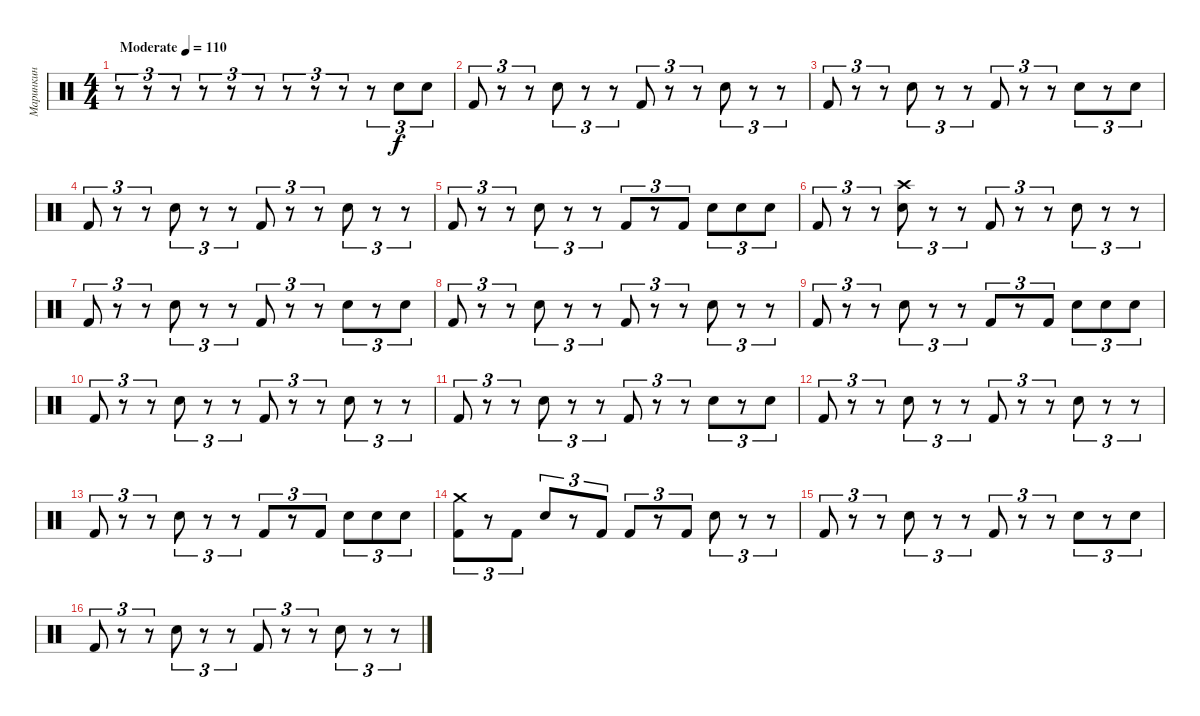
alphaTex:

\track ("Маринкин " "Маринкин ") {instrument percussion}
\staff {score}
\articulation defaults
\ts (4 4)
\tempo (110 "Moderate")
\clef neutral
\ks c
r.8{tu (3 2) dy f} r.8{tu (3 2)} r.8{tu (3 2)} r.8{tu (3 2)} r.8{tu (3 2)} r.8{tu (3 2)} r.8{tu (3 2)} r.8{tu (3 2)} r.8{tu (3 2)} r.8{tu (3 2)} "Snare (hit) 2".8{tu (3 2)} "Snare (hit) 2".8{tu (3 2)} |
"Kick (hit) 2".8{tu (3 2)} r.8{tu (3 2)} r.8{tu (3 2)} "Snare (hit) 2".8{tu (3 2)} r.8{tu (3 2)} r.8{tu (3 2)} "Kick (hit) 2".8{tu (3 2)} r.8{tu (3 2)} r.8{tu (3 2)} "Snare (hit) 2".8{tu (3 2)} r.8{tu (3 2)} r.8{tu (3 2)} |
"Kick (hit) 2".8{tu (3 2)} r.8{tu (3 2)} r.8{tu (3 2)} "Snare (hit) 2".8{tu (3 2)} r.8{tu (3 2)} r.8{tu (3 2)} "Kick (hit) 2".8{tu (3 2)} r.8{tu (3 2)} r.8{tu (3 2)} "Snare (hit) 2".8{tu (3 2)} r.8{tu (3 2)} "Snare (hit) 2".8{tu (3 2)} |
"Kick (hit) 2".8{tu (3 2)} r.8{tu (3 2)} r.8{tu (3 2)} "Snare (hit) 2".8{tu (3 2)} r.8{tu (3 2)} r.8{tu (3 2)} "Kick (hit) 2".8{tu (3 2)} r.8{tu (3 2)} r.8{tu (3 2)} "Snare (hit) 2".8{tu (3 2)} r.8{tu (3 2)} r.8{tu (3 2)} |
"Kick (hit) 2".8{tu (3 2)} r.8{tu (3 2)} r.8{tu (3 2)} "Snare (hit) 2".8{tu (3 2)} r.8{tu (3 2)} r.8{tu (3 2)} "Kick (hit) 2".8{tu (3 2)} r.8{tu (3 2)} "Kick (hit) 2".8{tu (3 2)} "Snare (hit) 2".8{tu (3 2)} "Snare (hit) 2".8{tu (3 2)} "Snare (hit) 2".8{tu (3 2)} |
"Kick (hit) 2".8{tu (3 2)} r.8{tu (3 2)} r.8{tu (3 2)} ("Snare (hit) 2" "Crash high (hit)").8{tu (3 2)} r.8{tu (3 2)} r.8{tu (3 2)} "Kick (hit) 2".8{tu (3 2)} r.8{tu (3 2)} r.8{tu (3 2)} "Snare (hit) 2".8{tu (3 2)} r.8{tu (3 2)} r.8{tu (3 2)} |
"Kick (hit) 2".8{tu (3 2)} r.8{tu (3 2)} r.8{tu (3 2)} "Snare (hit) 2".8{tu (3 2)} r.8{tu (3 2)} r.8{tu (3 2)} "Kick (hit) 2".8{tu (3 2)} r.8{tu (3 2)} r.8{tu (3 2)} "Snare (hit) 2".8{tu (3 2)} r.8{tu (3 2)} "Snare (hit) 2".8{tu (3 2)} |
"Kick (hit) 2".8{tu (3 2)} r.8{tu (3 2)} r.8{tu (3 2)} "Snare (hit) 2".8{tu (3 2)} r.8{tu (3 2)} r.8{tu (3 2)} "Kick (hit) 2".8{tu (3 2)} r.8{tu (3 2)} r.8{tu (3 2)} "Snare (hit) 2".8{tu (3 2)} r.8{tu (3 2)} r.8{tu (3 2)} |
"Kick (hit) 2".8{tu (3 2)} r.8{tu (3 2)} r.8{tu (3 2)} "Snare (hit) 2".8{tu (3 2)} r.8{tu (3 2)} r.8{tu (3 2)} "Kick (hit) 2".8{tu (3 2)} r.8{tu (3 2)} "Kick (hit) 2".8{tu (3 2)} "Snare (hit) 2".8{tu (3 2)} "Snare (hit) 2".8{tu (3 2)} "Snare (hit) 2".8{tu (3 2)} |
"Kick (hit) 2".8{tu (3 2)} r.8{tu (3 2)} r.8{tu (3 2)} "Snare (hit) 2".8{tu (3 2)} r.8{tu (3 2)} r.8{tu (3 2)} "Kick (hit) 2".8{tu (3 2)} r.8{tu (3 2)} r.8{tu (3 2)} "Snare (hit) 2".8{tu (3 2)} r.8{tu (3 2)} r.8{tu (3 2)} |
"Kick (hit) 2".8{tu (3 2)} r.8{tu (3 2)} r.8{tu (3 2)} "Snare (hit) 2".8{tu (3 2)} r.8{tu (3 2)} r.8{tu (3 2)} "Kick (hit) 2".8{tu (3 2)} r.8{tu (3 2)} r.8{tu (3 2)} "Snare (hit) 2".8{tu (3 2)} r.8{tu (3 2)} "Snare (hit) 2".8{tu (3 2)} |
"Kick (hit) 2".8{tu (3 2)} r.8{tu (3 2)} r.8{tu (3 2)} "Snare (hit) 2".8{tu (3 2)} r.8{tu (3 2)} r.8{tu (3 2)} "Kick (hit) 2".8{tu (3 2)} r.8{tu (3 2)} r.8{tu (3 2)} "Snare (hit) 2".8{tu (3 2)} r.8{tu (3 2)} r.8{tu (3 2)} |
"Kick (hit) 2".8{tu (3 2)} r.8{tu (3 2)} r.8{tu (3 2)} "Snare (hit) 2".8{tu (3 2)} r.8{tu (3 2)} r.8{tu (3 2)} "Kick (hit) 2".8{tu (3 2)} r.8{tu (3 2)} "Kick (hit) 2".8{tu (3 2)} "Snare (hit) 2".8{tu (3 2)} "Snare (hit) 2".8{tu (3 2)} "Snare (hit) 2".8{tu (3 2)} |
("Kick (hit) 2" "Crash medium (hit)").8{tu (3 2)} r.8{tu (3 2)} "Kick (hit) 2".8{tu (3 2)} "Snare (hit) 2".8{tu (3 2)} r.8{tu (3 2)} "Kick (hit) 2".8{tu (3 2)} "Kick (hit) 2".8{tu (3 2)} r.8{tu (3 2)} "Kick (hit) 2".8{tu (3 2)} "Snare (hit) 2".8{tu (3 2)} r.8{tu (3 2)} r.8{tu (3 2)} |
"Kick (hit) 2".8{tu (3 2)} r.8{tu (3 2)} r.8{tu (3 2)} "Snare (hit) 2".8{tu (3 2)} r.8{tu (3 2)} r.8{tu (3 2)} "Kick (hit) 2".8{tu (3 2)} r.8{tu (3 2)} r.8{tu (3 2)} "Snare (hit) 2".8{tu (3 2)} r.8{tu (3 2)} "Snare (hit) 2".8{tu (3 2)} |
"Kick (hit) 2".8{tu (3 2)} r.8{tu (3 2)} r.8{tu (3 2)} "Snare (hit) 2".8{tu (3 2)} r.8{tu (3 2)} r.8{tu (3 2)} "Kick (hit) 2".8{tu (3 2)} r.8{tu (3 2)} r.8{tu (3 2)} "Snare (hit) 2".8{tu (3 2)} r.8{tu (3 2)} r.8{tu (3 2)}
